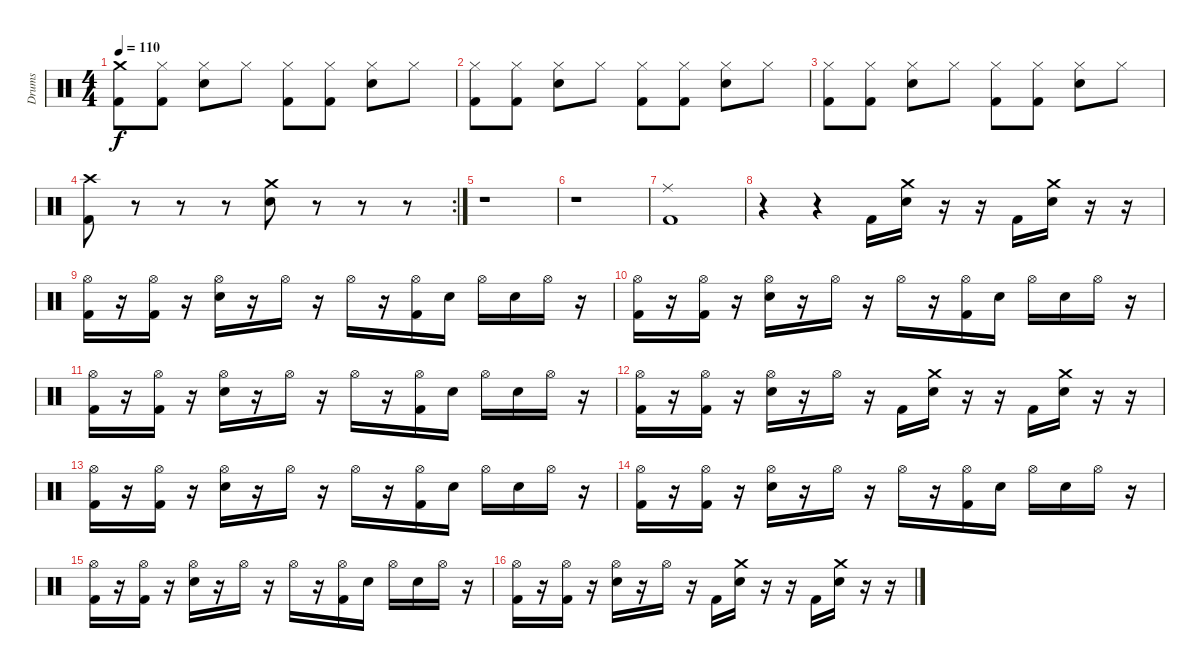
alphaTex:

\track ("Drums" "Drums") {instrument percussion}
\staff {score}
\articulation defaults
\ts (4 4)
\tempo 110
\clef neutral
\ks c
("Crash medium (hit)" "Kick (hit) 2").8{dy f} ("Hi-Hat (closed)" "Kick (hit) 2").8 ("Hi-Hat (closed)" "Electric Snare (hit)").8 "Hi-Hat (closed)".8 ("Hi-Hat (closed)" "Kick (hit) 2").8 ("Hi-Hat (closed)" "Kick (hit) 2").8 ("Hi-Hat (closed)" "Electric Snare (hit)").8 "Hi-Hat (closed)".8 |
("Hi-Hat (closed)" "Kick (hit) 2").8 ("Hi-Hat (closed)" "Kick (hit) 2").8 ("Hi-Hat (closed)" "Electric Snare (hit)").8 "Hi-Hat (closed)".8 ("Hi-Hat (closed)" "Kick (hit) 2").8 ("Hi-Hat (closed)" "Kick (hit) 2").8 ("Hi-Hat (closed)" "Electric Snare (hit)").8 "Hi-Hat (closed)".8 |
("Hi-Hat (closed)" "Kick (hit) 2").8 ("Hi-Hat (closed)" "Kick (hit) 2").8 ("Hi-Hat (closed)" "Electric Snare (hit)").8 "Hi-Hat (closed)".8 ("Hi-Hat (closed)" "Kick (hit) 2").8 ("Hi-Hat (closed)" "Kick (hit) 2").8 ("Hi-Hat (closed)" "Electric Snare (hit)").8 "Hi-Hat (closed)".8 |
\rc 2
("Crash high (hit)" "Kick (hit) 2").8 r.8 r.8 r.8 ("Crash medium (hit)" "Electric Snare (hit)").8 r.8 r.8 r.8 |
r.1 |
r.1 |
("Ride (middle)" "Kick (hit) 2").1 |
r.4 r.4 "Kick (hit) 2".16 ("Crash medium (hit)" "Electric Snare (hit)").16 r.16 r.16 "Kick (hit) 2".16 ("Crash medium (hit)" "Electric Snare (hit)").16 r.16 r.16 |
("Hi-Hat (open)" "Kick (hit) 2").16 r.16 ("Hi-Hat (open)" "Kick (hit) 2").16 r.16 ("Hi-Hat (open)" "Electric Snare (hit)").16 r.16 "Hi-Hat (open)".16 r.16 "Hi-Hat (open)".16 r.16 ("Hi-Hat (open)" "Kick (hit) 2").16 "Electric Snare (hit)".16 "Hi-Hat (open)".16 "Electric Snare (hit)".16 "Hi-Hat (open)".16 r.16 |
("Hi-Hat (open)" "Kick (hit) 2").16 r.16 ("Hi-Hat (open)" "Kick (hit) 2").16 r.16 ("Hi-Hat (open)" "Electric Snare (hit)").16 r.16 "Hi-Hat (open)".16 r.16 "Hi-Hat (open)".16 r.16 ("Hi-Hat (open)" "Kick (hit) 2").16 "Electric Snare (hit)".16 "Hi-Hat (open)".16 "Electric Snare (hit)".16 "Hi-Hat (open)".16 r.16 |
("Hi-Hat (open)" "Kick (hit) 2").16 r.16 ("Hi-Hat (open)" "Kick (hit) 2").16 r.16 ("Hi-Hat (open)" "Electric Snare (hit)").16 r.16 "Hi-Hat (open)".16 r.16 "Hi-Hat (open)".16 r.16 ("Hi-Hat (open)" "Kick (hit) 2").16 "Electric Snare (hit)".16 "Hi-Hat (open)".16 "Electric Snare (hit)".16 "Hi-Hat (open)".16 r.16 |
("Hi-Hat (open)" "Kick (hit) 2").16 r.16 ("Hi-Hat (open)" "Kick (hit) 2").16 r.16 ("Hi-Hat (open)" "Electric Snare (hit)").16 r.16 "Hi-Hat (open)".16 r.16 "Kick (hit) 2".16 ("Crash medium (hit)" "Electric Snare (hit)").16 r.16 r.16 "Kick (hit) 2".16 ("Crash medium (hit)" "Electric Snare (hit)").16 r.16 r.16 |
("Hi-Hat (open)" "Kick (hit) 2").16 r.16 ("Hi-Hat (open)" "Kick (hit) 2").16 r.16 ("Hi-Hat (open)" "Electric Snare (hit)").16 r.16 "Hi-Hat (open)".16 r.16 "Hi-Hat (open)".16 r.16 ("Hi-Hat (open)" "Kick (hit) 2").16 "Electric Snare (hit)".16 "Hi-Hat (open)".16 "Electric Snare (hit)".16 "Hi-Hat (open)".16 r.16 |
("Hi-Hat (open)" "Kick (hit) 2").16 r.16 ("Hi-Hat (open)" "Kick (hit) 2").16 r.16 ("Hi-Hat (open)" "Electric Snare (hit)").16 r.16 "Hi-Hat (open)".16 r.16 "Hi-Hat (open)".16 r.16 ("Hi-Hat (open)" "Kick (hit) 2").16 "Electric Snare (hit)".16 "Hi-Hat (open)".16 "Electric Snare (hit)".16 "Hi-Hat (open)".16 r.16 |
("Hi-Hat (open)" "Kick (hit) 2").16 r.16 ("Hi-Hat (open)" "Kick (hit) 2").16 r.16 ("Hi-Hat (open)" "Electric Snare (hit)").16 r.16 "Hi-Hat (open)".16 r.16 "Hi-Hat (open)".16 r.16 ("Hi-Hat (open)" "Kick (hit) 2").16 "Electric Snare (hit)".16 "Hi-Hat (open)".16 "Electric Snare (hit)".16 "Hi-Hat (open)".16 r.16 |
("Hi-Hat (open)" "Kick (hit) 2").16 r.16 ("Hi-Hat (open)" "Kick (hit) 2").16 r.16 ("Hi-Hat (open)" "Electric Snare (hit)").16 r.16 "Hi-Hat (open)".16 r.16 "Kick (hit) 2".16 ("Crash medium (hit)" "Electric Snare (hit)").16 r.16 r.16 "Kick (hit) 2".16 ("Crash medium (hit)" "Electric Snare (hit)").16 r.16 r.16
